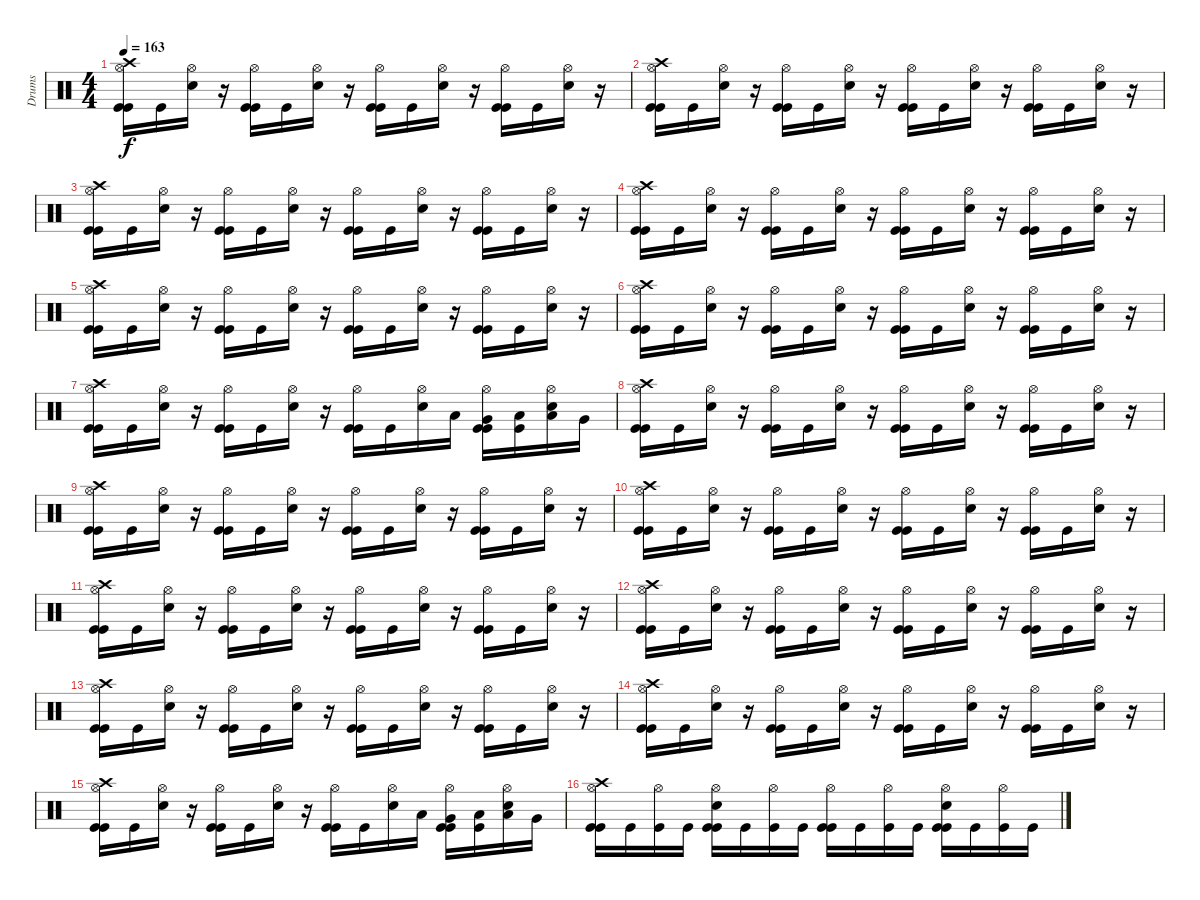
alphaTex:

\track ("Drums" "Drums") {instrument percussion}
\staff {score}
\articulation defaults
\ts (4 4)
\tempo 163
\clef neutral
\ks c
("Crash high (hit)" "Hi-Hat (open)" "Kick (hit)" "Kick (hit)").16{dy f} "Kick (hit)".16 ("Hi-Hat (open)" "Electric Snare (hit)").16 r.16 ("Hi-Hat (open)" "Kick (hit)" "Kick (hit)").16 "Kick (hit)".16 ("Hi-Hat (open)" "Electric Snare (hit)").16 r.16 ("Hi-Hat (open)" "Kick (hit)" "Kick (hit)").16 "Kick (hit)".16 ("Hi-Hat (open)" "Electric Snare (hit)").16 r.16 ("Hi-Hat (open)" "Kick (hit)" "Kick (hit)").16 "Kick (hit)".16 ("Hi-Hat (open)" "Electric Snare (hit)").16 r.16 |
("Crash high (hit)" "Hi-Hat (open)" "Kick (hit)" "Kick (hit)").16 "Kick (hit)".16 ("Hi-Hat (open)" "Electric Snare (hit)").16 r.16 ("Hi-Hat (open)" "Kick (hit)" "Kick (hit)").16 "Kick (hit)".16 ("Hi-Hat (open)" "Electric Snare (hit)").16 r.16 ("Hi-Hat (open)" "Kick (hit)" "Kick (hit)").16 "Kick (hit)".16 ("Hi-Hat (open)" "Electric Snare (hit)").16 r.16 ("Hi-Hat (open)" "Kick (hit)" "Kick (hit)").16 "Kick (hit)".16 ("Hi-Hat (open)" "Electric Snare (hit)").16 r.16 |
("Crash high (hit)" "Hi-Hat (open)" "Kick (hit)" "Kick (hit)").16 "Kick (hit)".16 ("Hi-Hat (open)" "Electric Snare (hit)").16 r.16 ("Hi-Hat (open)" "Kick (hit)" "Kick (hit)").16 "Kick (hit)".16 ("Hi-Hat (open)" "Electric Snare (hit)").16 r.16 ("Hi-Hat (open)" "Kick (hit)" "Kick (hit)").16 "Kick (hit)".16 ("Hi-Hat (open)" "Electric Snare (hit)").16 r.16 ("Hi-Hat (open)" "Kick (hit)" "Kick (hit)").16 "Kick (hit)".16 ("Hi-Hat (open)" "Electric Snare (hit)").16 r.16 |
("Crash high (hit)" "Hi-Hat (open)" "Kick (hit)" "Kick (hit)").16 "Kick (hit)".16 ("Hi-Hat (open)" "Electric Snare (hit)").16 r.16 ("Hi-Hat (open)" "Kick (hit)" "Kick (hit)").16 "Kick (hit)".16 ("Hi-Hat (open)" "Electric Snare (hit)").16 r.16 ("Hi-Hat (open)" "Kick (hit)" "Kick (hit)").16 "Kick (hit)".16 ("Hi-Hat (open)" "Electric Snare (hit)").16 r.16 ("Hi-Hat (open)" "Kick (hit)" "Kick (hit)").16 "Kick (hit)".16 ("Hi-Hat (open)" "Electric Snare (hit)").16 r.16 |
("Crash high (hit)" "Hi-Hat (open)" "Kick (hit)" "Kick (hit)").16 "Kick (hit)".16 ("Hi-Hat (open)" "Electric Snare (hit)").16 r.16 ("Hi-Hat (open)" "Kick (hit)" "Kick (hit)").16 "Kick (hit)".16 ("Hi-Hat (open)" "Electric Snare (hit)").16 r.16 ("Hi-Hat (open)" "Kick (hit)" "Kick (hit)").16 "Kick (hit)".16 ("Hi-Hat (open)" "Electric Snare (hit)").16 r.16 ("Hi-Hat (open)" "Kick (hit)" "Kick (hit)").16 "Kick (hit)".16 ("Hi-Hat (open)" "Electric Snare (hit)").16 r.16 |
("Crash high (hit)" "Hi-Hat (open)" "Kick (hit)" "Kick (hit)").16 "Kick (hit)".16 ("Hi-Hat (open)" "Electric Snare (hit)").16 r.16 ("Hi-Hat (open)" "Kick (hit)" "Kick (hit)").16 "Kick (hit)".16 ("Hi-Hat (open)" "Electric Snare (hit)").16 r.16 ("Hi-Hat (open)" "Kick (hit)" "Kick (hit)").16 "Kick (hit)".16 ("Hi-Hat (open)" "Electric Snare (hit)").16 r.16 ("Hi-Hat (open)" "Kick (hit)" "Kick (hit)").16 "Kick (hit)".16 ("Hi-Hat (open)" "Electric Snare (hit)").16 r.16 |
("Crash high (hit)" "Hi-Hat (open)" "Kick (hit)" "Kick (hit)").16 "Kick (hit)".16 ("Hi-Hat (open)" "Electric Snare (hit)").16 r.16 ("Hi-Hat (open)" "Kick (hit)" "Kick (hit)").16 "Kick (hit)".16 ("Hi-Hat (open)" "Electric Snare (hit)").16 r.16 ("Hi-Hat (open)" "Kick (hit)" "Kick (hit)").16 "Kick (hit)".16 ("Hi-Hat (open)" "Electric Snare (hit)").16 "Low Floor Tom (hit)".16 ("Very Low Tom (hit)" "Hi-Hat (open)" "Kick (hit)" "Kick (hit)").16 ("Low Floor Tom (hit)" "Kick (hit)").16 ("Low Tom (hit)" "Hi-Hat (open)" "Electric Snare (hit)").16 "Very Low Tom (hit)".16 |
("Crash high (hit)" "Hi-Hat (open)" "Kick (hit)" "Kick (hit)").16 "Kick (hit)".16 ("Hi-Hat (open)" "Electric Snare (hit)").16 r.16 ("Hi-Hat (open)" "Kick (hit)" "Kick (hit)").16 "Kick (hit)".16 ("Hi-Hat (open)" "Electric Snare (hit)").16 r.16 ("Hi-Hat (open)" "Kick (hit)" "Kick (hit)").16 "Kick (hit)".16 ("Hi-Hat (open)" "Electric Snare (hit)").16 r.16 ("Hi-Hat (open)" "Kick (hit)" "Kick (hit)").16 "Kick (hit)".16 ("Hi-Hat (open)" "Electric Snare (hit)").16 r.16 |
("Crash high (hit)" "Hi-Hat (open)" "Kick (hit)" "Kick (hit)").16 "Kick (hit)".16 ("Hi-Hat (open)" "Electric Snare (hit)").16 r.16 ("Hi-Hat (open)" "Kick (hit)" "Kick (hit)").16 "Kick (hit)".16 ("Hi-Hat (open)" "Electric Snare (hit)").16 r.16 ("Hi-Hat (open)" "Kick (hit)" "Kick (hit)").16 "Kick (hit)".16 ("Hi-Hat (open)" "Electric Snare (hit)").16 r.16 ("Hi-Hat (open)" "Kick (hit)" "Kick (hit)").16 "Kick (hit)".16 ("Hi-Hat (open)" "Electric Snare (hit)").16 r.16 |
("Crash high (hit)" "Hi-Hat (open)" "Kick (hit)" "Kick (hit)").16 "Kick (hit)".16 ("Hi-Hat (open)" "Electric Snare (hit)").16 r.16 ("Hi-Hat (open)" "Kick (hit)" "Kick (hit)").16 "Kick (hit)".16 ("Hi-Hat (open)" "Electric Snare (hit)").16 r.16 ("Hi-Hat (open)" "Kick (hit)" "Kick (hit)").16 "Kick (hit)".16 ("Hi-Hat (open)" "Electric Snare (hit)").16 r.16 ("Hi-Hat (open)" "Kick (hit)" "Kick (hit)").16 "Kick (hit)".16 ("Hi-Hat (open)" "Electric Snare (hit)").16 r.16 |
("Crash high (hit)" "Hi-Hat (open)" "Kick (hit)" "Kick (hit)").16 "Kick (hit)".16 ("Hi-Hat (open)" "Electric Snare (hit)").16 r.16 ("Hi-Hat (open)" "Kick (hit)" "Kick (hit)").16 "Kick (hit)".16 ("Hi-Hat (open)" "Electric Snare (hit)").16 r.16 ("Hi-Hat (open)" "Kick (hit)" "Kick (hit)").16 "Kick (hit)".16 ("Hi-Hat (open)" "Electric Snare (hit)").16 r.16 ("Hi-Hat (open)" "Kick (hit)" "Kick (hit)").16 "Kick (hit)".16 ("Hi-Hat (open)" "Electric Snare (hit)").16 r.16 |
("Crash high (hit)" "Hi-Hat (open)" "Kick (hit)" "Kick (hit)").16 "Kick (hit)".16 ("Hi-Hat (open)" "Electric Snare (hit)").16 r.16 ("Hi-Hat (open)" "Kick (hit)" "Kick (hit)").16 "Kick (hit)".16 ("Hi-Hat (open)" "Electric Snare (hit)").16 r.16 ("Hi-Hat (open)" "Kick (hit)" "Kick (hit)").16 "Kick (hit)".16 ("Hi-Hat (open)" "Electric Snare (hit)").16 r.16 ("Hi-Hat (open)" "Kick (hit)" "Kick (hit)").16 "Kick (hit)".16 ("Hi-Hat (open)" "Electric Snare (hit)").16 r.16 |
("Crash high (hit)" "Hi-Hat (open)" "Kick (hit)" "Kick (hit)").16 "Kick (hit)".16 ("Hi-Hat (open)" "Electric Snare (hit)").16 r.16 ("Hi-Hat (open)" "Kick (hit)" "Kick (hit)").16 "Kick (hit)".16 ("Hi-Hat (open)" "Electric Snare (hit)").16 r.16 ("Hi-Hat (open)" "Kick (hit)" "Kick (hit)").16 "Kick (hit)".16 ("Hi-Hat (open)" "Electric Snare (hit)").16 r.16 ("Hi-Hat (open)" "Kick (hit)" "Kick (hit)").16 "Kick (hit)".16 ("Hi-Hat (open)" "Electric Snare (hit)").16 r.16 |
("Crash high (hit)" "Hi-Hat (open)" "Kick (hit)" "Kick (hit)").16 "Kick (hit)".16 ("Hi-Hat (open)" "Electric Snare (hit)").16 r.16 ("Hi-Hat (open)" "Kick (hit)" "Kick (hit)").16 "Kick (hit)".16 ("Hi-Hat (open)" "Electric Snare (hit)").16 r.16 ("Hi-Hat (open)" "Kick (hit)" "Kick (hit)").16 "Kick (hit)".16 ("Hi-Hat (open)" "Electric Snare (hit)").16 r.16 ("Hi-Hat (open)" "Kick (hit)" "Kick (hit)").16 "Kick (hit)".16 ("Hi-Hat (open)" "Electric Snare (hit)").16 r.16 |
("Crash high (hit)" "Hi-Hat (open)" "Kick (hit)" "Kick (hit)").16 "Kick (hit)".16 ("Hi-Hat (open)" "Electric Snare (hit)").16 r.16 ("Hi-Hat (open)" "Kick (hit)" "Kick (hit)").16 "Kick (hit)".16 ("Hi-Hat (open)" "Electric Snare (hit)").16 r.16 ("Hi-Hat (open)" "Kick (hit)" "Kick (hit)").16 "Kick (hit)".16 ("Hi-Hat (open)" "Electric Snare (hit)").16 "Low Floor Tom (hit)".16 ("Very Low Tom (hit)" "Hi-Hat (open)" "Kick (hit)" "Kick (hit)").16 ("Low Floor Tom (hit)" "Kick (hit)").16 ("Low Tom (hit)" "Hi-Hat (open)" "Electric Snare (hit)").16 "Very Low Tom (hit)".16 |
("Crash high (hit)" "Hi-Hat (open)" "Kick (hit)" "Kick (hit)").16 "Kick (hit)".16 ("Kick (hit)" "Hi-Hat (open)").16 "Kick (hit)".16 ("Electric Snare (hit)" "Hi-Hat (open)" "Kick (hit)" "Kick (hit)").16 "Kick (hit)".16 ("Kick (hit)" "Hi-Hat (open)").16 "Kick (hit)".16 ("Hi-Hat (open)" "Kick (hit)" "Kick (hit)").16 "Kick (hit)".16 ("Kick (hit)" "Hi-Hat (open)").16 "Kick (hit)".16 ("Electric Snare (hit)" "Hi-Hat (open)" "Kick (hit)" "Kick (hit)").16 "Kick (hit)".16 ("Kick (hit)" "Hi-Hat (open)").16 "Kick (hit)".16
